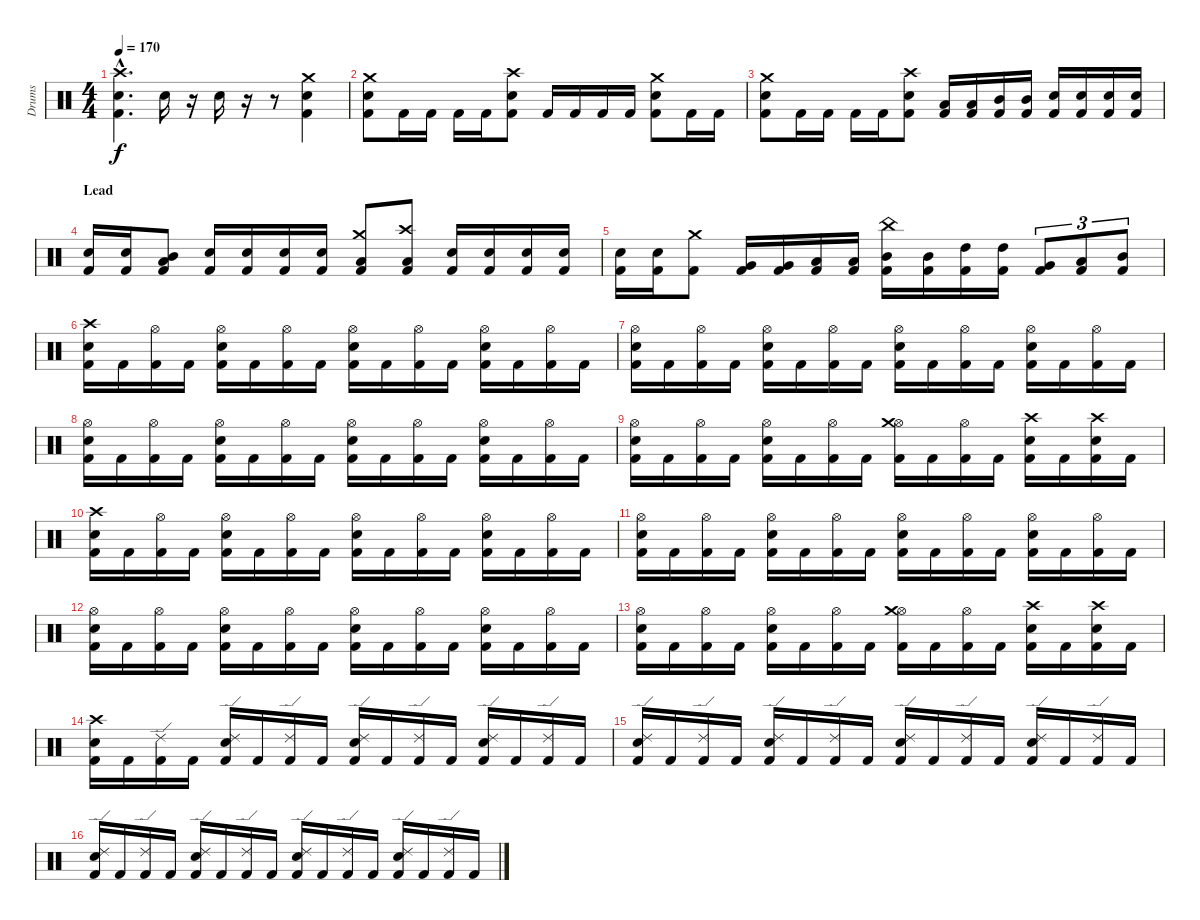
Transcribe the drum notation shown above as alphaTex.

\track ("Drums" "Drums") {instrument percussion}
\staff {score}
\articulation defaults
\ts (4 4)
\tempo 170
\clef neutral
\ks c
("Kick (hit) 2"{hac} "Snare (hit) 2"{hac} "Crash high (hit)"{hac}).4{d dy f} "Snare (hit) 2".16 r.16 "Snare (hit) 2".16 r.16 r.8 ("Kick (hit) 2" "Snare (hit) 2" "Crash medium (hit)").4 |
("Kick (hit) 2" "Snare (hit) 2" "Crash medium (hit)").8 "Kick (hit) 2".16 "Kick (hit) 2".16 "Kick (hit) 2".16 "Kick (hit) 2".16 ("Kick (hit) 2" "Snare (hit) 2" "Crash high (hit)").8 "Kick (hit) 2".16 "Kick (hit) 2".16 "Kick (hit) 2".16 "Kick (hit) 2".16 ("Kick (hit) 2" "Snare (hit) 2" "Crash medium (hit)").8 "Kick (hit) 2".16 "Kick (hit) 2".16 |
("Kick (hit) 2" "Snare (hit) 2" "Crash medium (hit)").8 "Kick (hit) 2".16 "Kick (hit) 2".16 "Kick (hit) 2".16 "Kick (hit) 2".16 ("Kick (hit) 2" "Snare (hit) 2" "Crash high (hit)").8 ("Kick (hit) 2" "Low Tom (hit)").16 ("Kick (hit) 2" "Low Tom (hit)").16 ("Kick (hit) 2" "Mid Tom (hit)").16 ("Kick (hit) 2" "Mid Tom (hit)").16 ("Kick (hit) 2" "Snare (hit) 2").16 ("Kick (hit) 2" "Snare (hit) 2").16 ("Kick (hit) 2" "Snare (hit) 2").16 ("Kick (hit) 2" "Snare (hit) 2").16 |
\section ("" "Lead")
("Kick (hit) 2" "Snare (hit) 2").16 ("Kick (hit) 2" "Snare (hit) 2").16 ("Kick (hit) 2" "Low Tom (hit)" "Mid Tom (hit)").8 ("Kick (hit) 2" "Snare (hit) 2").16 ("Kick (hit) 2" "Snare (hit) 2").16 ("Kick (hit) 2" "Snare (hit) 2").16 ("Kick (hit) 2" "Snare (hit) 2").16 ("Kick (hit) 2" "Low Tom (hit)" "Crash medium (hit)").8 ("Kick (hit) 2" "Low Tom (hit)" "Crash high (hit)").8 ("Kick (hit) 2" "Snare (hit) 2").16 ("Kick (hit) 2" "Snare (hit) 2").16 ("Kick (hit) 2" "Snare (hit) 2").16 ("Kick (hit) 2" "Snare (hit) 2").16 |
("Kick (hit) 2" "Snare (hit) 2").16 ("Kick (hit) 2" "Snare (hit) 2").16 ("Kick (hit) 2" "Crash medium (hit)").8 ("Kick (hit) 2" "Very Low Tom (hit)").16 ("Kick (hit) 2" "Very Low Tom (hit)").16 ("Kick (hit) 2" "Low Tom (hit)").16 ("Kick (hit) 2" "Low Tom (hit)").16 ("Kick (hit) 2" "Mid Tom (hit)" "China (hit)").16 ("Kick (hit) 2" "Mid Tom (hit)").16 ("Kick (hit) 2" "High Tom (hit)").16 ("Kick (hit) 2" "High Tom (hit)").16 ("Kick (hit) 2" "Very Low Tom (hit)").8{tu (3 2)} ("Kick (hit) 2" "Low Tom (hit)").8{tu (3 2)} ("Kick (hit) 2" "Mid Tom (hit)").8{tu (3 2)} |
("Kick (hit) 2" "Snare (hit) 2" "Crash high (hit)").16 "Kick (hit) 2".16 ("Kick (hit) 2" "Hi-Hat (open)").16 "Kick (hit) 2".16 ("Kick (hit) 2" "Hi-Hat (open)" "Snare (hit) 2").16 "Kick (hit) 2".16 ("Kick (hit) 2" "Hi-Hat (open)").16 "Kick (hit) 2".16 ("Kick (hit) 2" "Hi-Hat (open)" "Snare (hit) 2").16 "Kick (hit) 2".16 ("Kick (hit) 2" "Hi-Hat (open)").16 "Kick (hit) 2".16 ("Kick (hit) 2" "Hi-Hat (open)" "Snare (hit) 2").16 "Kick (hit) 2".16 ("Kick (hit) 2" "Hi-Hat (open)").16 "Kick (hit) 2".16 |
("Kick (hit) 2" "Hi-Hat (open)" "Snare (hit) 2").16 "Kick (hit) 2".16 ("Kick (hit) 2" "Hi-Hat (open)").16 "Kick (hit) 2".16 ("Kick (hit) 2" "Hi-Hat (open)" "Snare (hit) 2").16 "Kick (hit) 2".16 ("Kick (hit) 2" "Hi-Hat (open)").16 "Kick (hit) 2".16 ("Kick (hit) 2" "Hi-Hat (open)" "Snare (hit) 2").16 "Kick (hit) 2".16 ("Kick (hit) 2" "Hi-Hat (open)").16 "Kick (hit) 2".16 ("Kick (hit) 2" "Hi-Hat (open)" "Snare (hit) 2").16 "Kick (hit) 2".16 ("Kick (hit) 2" "Hi-Hat (open)").16 "Kick (hit) 2".16 |
("Kick (hit) 2" "Hi-Hat (open)" "Snare (hit) 2").16 "Kick (hit) 2".16 ("Kick (hit) 2" "Hi-Hat (open)").16 "Kick (hit) 2".16 ("Kick (hit) 2" "Hi-Hat (open)" "Snare (hit) 2").16 "Kick (hit) 2".16 ("Kick (hit) 2" "Hi-Hat (open)").16 "Kick (hit) 2".16 ("Kick (hit) 2" "Hi-Hat (open)" "Snare (hit) 2").16 "Kick (hit) 2".16 ("Kick (hit) 2" "Hi-Hat (open)").16 "Kick (hit) 2".16 ("Kick (hit) 2" "Hi-Hat (open)" "Snare (hit) 2").16 "Kick (hit) 2".16 ("Kick (hit) 2" "Hi-Hat (open)").16 "Kick (hit) 2".16 |
("Kick (hit) 2" "Hi-Hat (open)" "Snare (hit) 2").16 "Kick (hit) 2".16 ("Kick (hit) 2" "Hi-Hat (open)").16 "Kick (hit) 2".16 ("Kick (hit) 2" "Hi-Hat (open)" "Snare (hit) 2").16 "Kick (hit) 2".16 ("Kick (hit) 2" "Hi-Hat (open)").16 "Kick (hit) 2".16 ("Kick (hit) 2" "Hi-Hat (open)" "Crash medium (hit)").16 "Kick (hit) 2".16 ("Kick (hit) 2" "Hi-Hat (open)").16 "Kick (hit) 2".16 ("Kick (hit) 2" "Snare (hit) 2" "Crash high (hit)").16 "Kick (hit) 2".16 ("Kick (hit) 2" "Snare (hit) 2" "Crash high (hit)").16 "Kick (hit) 2".16 |
("Kick (hit) 2" "Snare (hit) 2" "Crash high (hit)").16 "Kick (hit) 2".16 ("Kick (hit) 2" "Hi-Hat (open)").16 "Kick (hit) 2".16 ("Kick (hit) 2" "Hi-Hat (open)" "Snare (hit) 2").16 "Kick (hit) 2".16 ("Kick (hit) 2" "Hi-Hat (open)").16 "Kick (hit) 2".16 ("Kick (hit) 2" "Hi-Hat (open)" "Snare (hit) 2").16 "Kick (hit) 2".16 ("Kick (hit) 2" "Hi-Hat (open)").16 "Kick (hit) 2".16 ("Kick (hit) 2" "Hi-Hat (open)" "Snare (hit) 2").16 "Kick (hit) 2".16 ("Kick (hit) 2" "Hi-Hat (open)").16 "Kick (hit) 2".16 |
("Kick (hit) 2" "Hi-Hat (open)" "Snare (hit) 2").16 "Kick (hit) 2".16 ("Kick (hit) 2" "Hi-Hat (open)").16 "Kick (hit) 2".16 ("Kick (hit) 2" "Hi-Hat (open)" "Snare (hit) 2").16 "Kick (hit) 2".16 ("Kick (hit) 2" "Hi-Hat (open)").16 "Kick (hit) 2".16 ("Kick (hit) 2" "Hi-Hat (open)" "Snare (hit) 2").16 "Kick (hit) 2".16 ("Kick (hit) 2" "Hi-Hat (open)").16 "Kick (hit) 2".16 ("Kick (hit) 2" "Hi-Hat (open)" "Snare (hit) 2").16 "Kick (hit) 2".16 ("Kick (hit) 2" "Hi-Hat (open)").16 "Kick (hit) 2".16 |
("Kick (hit) 2" "Hi-Hat (open)" "Snare (hit) 2").16 "Kick (hit) 2".16 ("Kick (hit) 2" "Hi-Hat (open)").16 "Kick (hit) 2".16 ("Kick (hit) 2" "Hi-Hat (open)" "Snare (hit) 2").16 "Kick (hit) 2".16 ("Kick (hit) 2" "Hi-Hat (open)").16 "Kick (hit) 2".16 ("Kick (hit) 2" "Hi-Hat (open)" "Snare (hit) 2").16 "Kick (hit) 2".16 ("Kick (hit) 2" "Hi-Hat (open)").16 "Kick (hit) 2".16 ("Kick (hit) 2" "Hi-Hat (open)" "Snare (hit) 2").16 "Kick (hit) 2".16 ("Kick (hit) 2" "Hi-Hat (open)").16 "Kick (hit) 2".16 |
("Kick (hit) 2" "Hi-Hat (open)" "Snare (hit) 2").16 "Kick (hit) 2".16 ("Kick (hit) 2" "Hi-Hat (open)").16 "Kick (hit) 2".16 ("Kick (hit) 2" "Hi-Hat (open)" "Snare (hit) 2").16 "Kick (hit) 2".16 ("Kick (hit) 2" "Hi-Hat (open)").16 "Kick (hit) 2".16 ("Kick (hit) 2" "Hi-Hat (open)" "Crash medium (hit)").16 "Kick (hit) 2".16 ("Kick (hit) 2" "Hi-Hat (open)").16 "Kick (hit) 2".16 ("Kick (hit) 2" "Snare (hit) 2" "Crash high (hit)").16 "Kick (hit) 2".16 ("Kick (hit) 2" "Snare (hit) 2" "Crash high (hit)").16 "Kick (hit) 2".16 |
("Kick (hit) 2" "Snare (hit) 2" "Crash high (hit)").16 "Kick (hit) 2".16 ("Kick (hit) 2" "Ride (edge) 2").16 "Kick (hit) 2".16 ("Kick (hit) 2" "Ride (edge) 2" "Snare (hit) 2").16 "Kick (hit) 2".16 ("Kick (hit) 2" "Ride (edge) 2").16 "Kick (hit) 2".16 ("Kick (hit) 2" "Ride (edge) 2" "Snare (hit) 2").16 "Kick (hit) 2".16 ("Kick (hit) 2" "Ride (edge) 2").16 "Kick (hit) 2".16 ("Kick (hit) 2" "Ride (edge) 2" "Snare (hit) 2").16 "Kick (hit) 2".16 ("Kick (hit) 2" "Ride (edge) 2").16 "Kick (hit) 2".16 |
("Kick (hit) 2" "Ride (edge) 2" "Snare (hit) 2").16 "Kick (hit) 2".16 ("Kick (hit) 2" "Ride (edge) 2").16 "Kick (hit) 2".16 ("Kick (hit) 2" "Ride (edge) 2" "Snare (hit) 2").16 "Kick (hit) 2".16 ("Kick (hit) 2" "Ride (edge) 2").16 "Kick (hit) 2".16 ("Kick (hit) 2" "Ride (edge) 2" "Snare (hit) 2").16 "Kick (hit) 2".16 ("Kick (hit) 2" "Ride (edge) 2").16 "Kick (hit) 2".16 ("Kick (hit) 2" "Ride (edge) 2" "Snare (hit) 2").16 "Kick (hit) 2".16 ("Kick (hit) 2" "Ride (edge) 2").16 "Kick (hit) 2".16 |
("Kick (hit) 2" "Ride (edge) 2" "Snare (hit) 2").16 "Kick (hit) 2".16 ("Kick (hit) 2" "Ride (edge) 2").16 "Kick (hit) 2".16 ("Kick (hit) 2" "Ride (edge) 2" "Snare (hit) 2").16 "Kick (hit) 2".16 ("Kick (hit) 2" "Ride (edge) 2").16 "Kick (hit) 2".16 ("Kick (hit) 2" "Ride (edge) 2" "Snare (hit) 2").16 "Kick (hit) 2".16 ("Kick (hit) 2" "Ride (edge) 2").16 "Kick (hit) 2".16 ("Kick (hit) 2" "Ride (edge) 2" "Snare (hit) 2").16 "Kick (hit) 2".16 ("Kick (hit) 2" "Ride (edge) 2").16 "Kick (hit) 2".16
